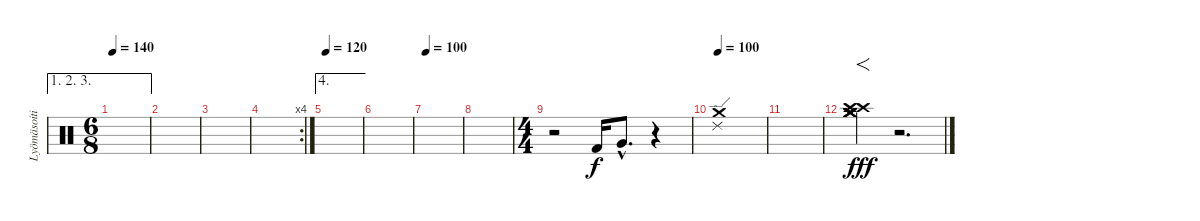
\track ("Lyömäsoitin" "Lyömäsoiti") {instrument percussion}
\staff {score}
\articulation defaults
\ae (1 2 3)
\ts (6 8)
\tempo 140
\clef neutral
\ks c
|
|
|
\rc 4
|
\ae 4
\tempo 120
|
|
\tempo 100
|
|
\ts (4 4)
r.2 "Kick (hit) 2".16{dy f} "Very Low Tom (hit)"{hac}.8{d} r.4 |
\tempo 100
("Crash medium (hit)" "Ride (edge) 2").1 |
|
("Crash medium (hit)" "Crash medium (hit)" "Crash high (hit)" "Crash high (hit)" "Crash medium (hit)" "Crash medium (hit)").4{f dy fff} r.2{d}
